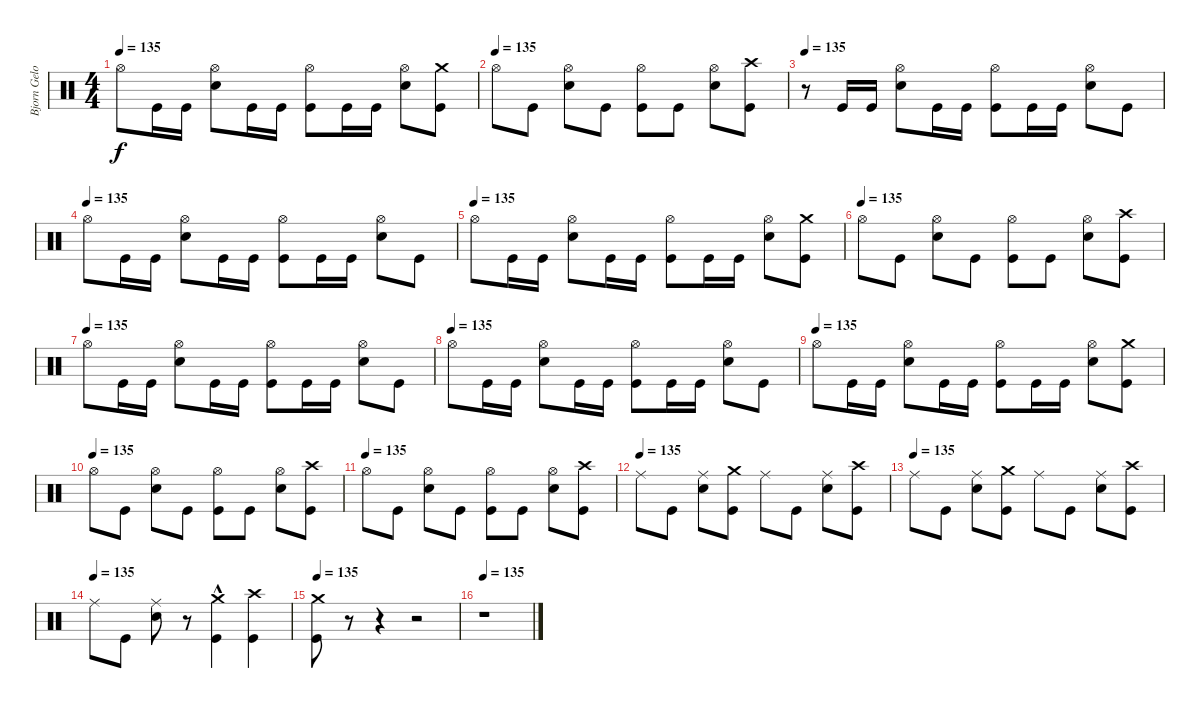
\track ("Bjorn Gelotte-Drum" "Bjorn Gelo") {instrument percussion}
\staff {score}
\articulation defaults
\ts (4 4)
\tempo 135
\clef neutral
\ks c "Hi-Hat (open)".8{dy f} "Kick (hit)".16 "Kick (hit)".16
("Electric Snare (hit)" "Hi-Hat (open)").8 "Kick (hit)".16 "Kick (hit)".16 ("Kick (hit)" "Hi-Hat (open)").8 "Kick (hit)".16 "Kick (hit)".16 ("Electric Snare (hit)" "Hi-Hat (open)").8 ("Kick (hit)" "Crash medium (hit)").8 |
\tempo (135)
"Hi-Hat (open)".8 "Kick (hit)".8 ("Electric Snare (hit)" "Hi-Hat (open)").8 "Kick (hit)".8 ("Kick (hit)" "Hi-Hat (open)").8 "Kick (hit)".8 ("Electric Snare (hit)" "Hi-Hat (open)").8 ("Kick (hit)" "Crash high (hit)").8 |
\tempo 135
r.8 "Kick (hit)".16 "Kick (hit)".16 ("Electric Snare (hit)" "Hi-Hat (open)").8 "Kick (hit)".16 "Kick (hit)".16 ("Kick (hit)" "Hi-Hat (open)").8 "Kick (hit)".16 "Kick (hit)".16 ("Electric Snare (hit)" "Hi-Hat (open)").8 "Kick (hit)".8 |
\tempo (135)
"Hi-Hat (open)".8 "Kick (hit)".16 "Kick (hit)".16 ("Electric Snare (hit)" "Hi-Hat (open)").8 "Kick (hit)".16 "Kick (hit)".16 ("Kick (hit)" "Hi-Hat (open)").8 "Kick (hit)".16 "Kick (hit)".16 ("Electric Snare (hit)" "Hi-Hat (open)").8 "Kick (hit)".8 |
\tempo (135)
"Hi-Hat (open)".8 "Kick (hit)".16 "Kick (hit)".16 ("Electric Snare (hit)" "Hi-Hat (open)").8 "Kick (hit)".16 "Kick (hit)".16 ("Kick (hit)" "Hi-Hat (open)").8 "Kick (hit)".16 "Kick (hit)".16 ("Electric Snare (hit)" "Hi-Hat (open)").8 ("Kick (hit)" "Crash medium (hit)").8 |
\tempo (135)
"Hi-Hat (open)".8 "Kick (hit)".8 ("Electric Snare (hit)" "Hi-Hat (open)").8 "Kick (hit)".8 ("Kick (hit)" "Hi-Hat (open)").8 "Kick (hit)".8 ("Electric Snare (hit)" "Hi-Hat (open)").8 ("Kick (hit)" "Crash high (hit)").8 |
\tempo (135)
"Hi-Hat (open)".8 "Kick (hit)".16 "Kick (hit)".16 ("Electric Snare (hit)" "Hi-Hat (open)").8 "Kick (hit)".16 "Kick (hit)".16 ("Kick (hit)" "Hi-Hat (open)").8 "Kick (hit)".16 "Kick (hit)".16 ("Electric Snare (hit)" "Hi-Hat (open)").8 "Kick (hit)".8 |
\tempo (135)
"Hi-Hat (open)".8 "Kick (hit)".16 "Kick (hit)".16 ("Electric Snare (hit)" "Hi-Hat (open)").8 "Kick (hit)".16 "Kick (hit)".16 ("Kick (hit)" "Hi-Hat (open)").8 "Kick (hit)".16 "Kick (hit)".16 ("Electric Snare (hit)" "Hi-Hat (open)").8 "Kick (hit)".8 |
\tempo (135)
"Hi-Hat (open)".8 "Kick (hit)".16 "Kick (hit)".16 ("Electric Snare (hit)" "Hi-Hat (open)").8 "Kick (hit)".16 "Kick (hit)".16 ("Kick (hit)" "Hi-Hat (open)").8 "Kick (hit)".16 "Kick (hit)".16 ("Electric Snare (hit)" "Hi-Hat (open)").8 ("Kick (hit)" "Crash medium (hit)").8 |
\tempo (135)
"Hi-Hat (open)".8 "Kick (hit)".8 ("Electric Snare (hit)" "Hi-Hat (open)").8 "Kick (hit)".8 ("Kick (hit)" "Hi-Hat (open)").8 "Kick (hit)".8 ("Electric Snare (hit)" "Hi-Hat (open)").8 ("Kick (hit)" "Crash high (hit)").8 |
\tempo (135)
"Hi-Hat (open)".8 "Kick (hit)".8 ("Electric Snare (hit)" "Hi-Hat (open)").8 "Kick (hit)".8 ("Kick (hit)" "Hi-Hat (open)").8 "Kick (hit)".8 ("Electric Snare (hit)" "Hi-Hat (open)").8 ("Kick (hit)" "Crash high (hit)").8 |
\tempo (135)
"Ride (middle)".8 "Kick (hit)".8 ("Electric Snare (hit)" "Ride (middle)").8 ("Kick (hit)" "Crash medium (hit)").8 "Ride (middle)".8 "Kick (hit)".8 ("Electric Snare (hit)" "Ride (middle)").8 ("Kick (hit)" "Crash high (hit)").8 |
\tempo (135)
"Ride (middle)".8 "Kick (hit)".8 ("Electric Snare (hit)" "Ride (middle)").8 ("Kick (hit)" "Crash medium (hit)").8 "Ride (middle)".8 "Kick (hit)".8 ("Electric Snare (hit)" "Ride (middle)").8 ("Kick (hit)" "Crash high (hit)").8 |
\tempo (135)
"Ride (middle)".8 "Kick (hit)".8 ("Electric Snare (hit)" "Ride (middle)").8 r.8 ("Kick (hit)"{hac} "Crash medium (hit)").4 ("Kick (hit)" "Crash high (hit)").4 |
\tempo 135
("Kick (hit)" "Crash medium (hit)").8 r.8 r.4 r.2 |
\tempo 135
r.1
